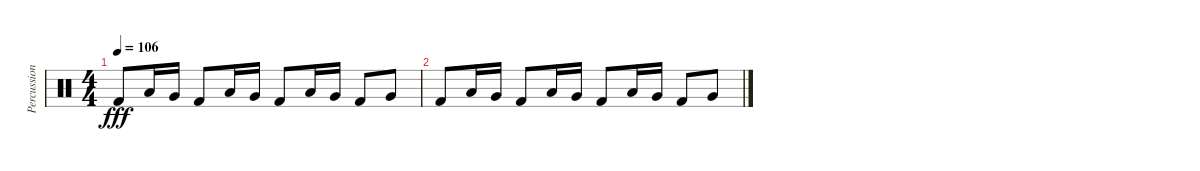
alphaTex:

\track ("Percussion 2" "Percussion") {instrument percussion}
\staff {score}
\articulation defaults
\ts (4 4)
\tempo 106
\clef neutral
\ks c "Kick (hit) 2".8{dy fff} "Low Floor Tom (hit)".16 "Very Low Tom (hit)".16 "Kick (hit) 2".8 "Low Floor Tom (hit)".16 "Very Low Tom (hit)".16 "Kick (hit) 2".8 "Low Floor Tom (hit)".16 "Very Low Tom (hit)".16 "Kick (hit) 2".8 "Very Low Tom (hit)".8
|
"Kick (hit) 2".8 "Low Floor Tom (hit)".16 "Very Low Tom (hit)".16 "Kick (hit) 2".8 "Low Floor Tom (hit)".16 "Very Low Tom (hit)".16 "Kick (hit) 2".8 "Low Floor Tom (hit)".16 "Very Low Tom (hit)".16 "Kick (hit) 2".8 "Very Low Tom (hit)".8
